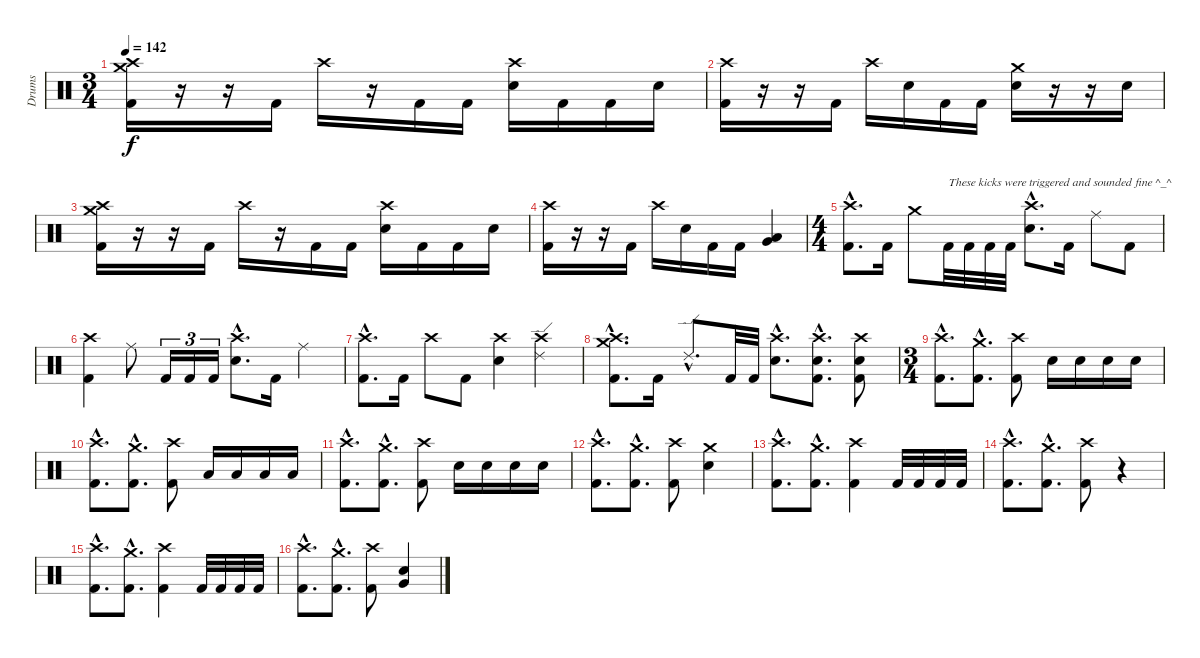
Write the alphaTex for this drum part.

\track ("Drums" "Drums") {instrument percussion}
\staff {score}
\articulation defaults
\ts (3 4)
\tempo 142
\clef neutral
\ks c
("Crash high (hit)" "Crash medium (hit)" "Kick (hit) 2").16{dy f} r.16 r.16 "Kick (hit) 2".16 "Crash high (hit)".16 r.16 "Kick (hit) 2".16 "Kick (hit) 2".16 ("Crash high (hit)" "Snare (hit) 2").16 "Kick (hit) 2".16 "Kick (hit) 2".16 "Snare (hit) 2".16 |
("Crash high (hit)" "Kick (hit) 2").16 r.16 r.16 "Kick (hit) 2".16 "Crash high (hit)".16 "Snare (hit) 2".16 "Kick (hit) 2".16 "Kick (hit) 2".16 ("Crash medium (hit)" "Snare (hit) 2").16 r.16 r.16 "Snare (hit) 2".16 |
("Crash high (hit)" "Crash medium (hit)" "Kick (hit) 2").16 r.16 r.16 "Kick (hit) 2".16 "Crash high (hit)".16 r.16 "Kick (hit) 2".16 "Kick (hit) 2".16 ("Crash high (hit)" "Snare (hit) 2").16 "Kick (hit) 2".16 "Kick (hit) 2".16 "Snare (hit) 2".16 |
("Crash high (hit)" "Kick (hit) 2").16 r.16 r.16 "Kick (hit) 2".16 "Crash high (hit)".16 "Snare (hit) 2".16 "Kick (hit) 2".16 "Kick (hit) 2".16 ("Very Low Tom (hit)" "Low Tom (hit)").4 |
\ts (4 4)
("Crash high (hit)"{hac} "Kick (hit) 2"{hac}).8{d} "Kick (hit) 2".16 "Crash medium (hit)".8 "Kick (hit) 2".32{txt "These kicks were triggered and sounded fine ^_^"} "Kick (hit) 2".32 "Kick (hit) 2".32 "Kick (hit) 2".32 ("Crash high (hit)"{hac} "Snare (hit) 2"{hac}).8{d} "Kick (hit) 2".16 "Ride (middle)".8 "Kick (hit) 2".8 |
("Crash high (hit)" "Kick (hit) 2").4 "Ride (middle)".8 "Kick (hit) 2".16{tu (3 2)} "Kick (hit) 2".16{tu (3 2)} "Kick (hit) 2".16{tu (3 2)} ("Crash high (hit)"{hac} "Snare (hit) 2"{hac}).8{d} "Kick (hit) 2".16 "Ride (middle)".4 |
("Crash high (hit)"{hac} "Kick (hit) 2"{hac}).8{d} "Kick (hit) 2".16 "Crash high (hit)".8 "Kick (hit) 2".8 ("Crash high (hit)" "Snare (hit) 2").4 ("Crash high (hit)" "Ride (edge) 2").4 |
("Crash high (hit)"{hac} "Crash medium (hit)"{hac} "Kick (hit) 2"{hac}).8{d} "Kick (hit) 2".16 "Ride (edge) 2"{hac}.8{d} "Kick (hit) 2".32 "Kick (hit) 2".32 ("Crash high (hit)"{hac} "Snare (hit) 2"{hac}).8{d} ("Crash high (hit)"{hac} "Snare (hit) 2"{hac} "Kick (hit) 2"{hac}).8{d} ("Crash high (hit)" "Snare (hit) 2" "Kick (hit) 2").8 |
\ts (3 4)
("Crash high (hit)"{hac} "Kick (hit) 2"{hac}).8{d} ("Crash medium (hit)"{hac} "Kick (hit) 2"{hac}).8{d} ("Crash high (hit)" "Kick (hit) 2").8 "Snare (hit) 2".16 "Snare (hit) 2".16 "Snare (hit) 2".16 "Snare (hit) 2".16 |
("Crash high (hit)"{hac} "Kick (hit) 2"{hac}).8{d} ("Crash medium (hit)"{hac} "Kick (hit) 2"{hac}).8{d} ("Crash high (hit)" "Kick (hit) 2").8 "Low Floor Tom (hit)".16 "Low Floor Tom (hit)".16 "Low Floor Tom (hit)".16 "Low Floor Tom (hit)".16 |
("Crash high (hit)"{hac} "Kick (hit) 2"{hac}).8{d} ("Crash medium (hit)"{hac} "Kick (hit) 2"{hac}).8{d} ("Crash high (hit)" "Kick (hit) 2").8 "Snare (hit) 2".16 "Snare (hit) 2".16 "Snare (hit) 2".16 "Snare (hit) 2".16 |
("Crash high (hit)"{hac} "Kick (hit) 2"{hac}).8{d} ("Crash medium (hit)"{hac} "Kick (hit) 2"{hac}).8{d} ("Crash high (hit)" "Kick (hit) 2").8 ("Crash medium (hit)" "Snare (hit) 2").4 |
("Crash high (hit)"{hac} "Kick (hit) 2"{hac}).8{d} ("Crash medium (hit)"{hac} "Kick (hit) 2"{hac}).8{d} ("Crash high (hit)" "Kick (hit) 2").4 "Kick (hit) 2".32 "Kick (hit) 2".32 "Kick (hit) 2".32 "Kick (hit) 2".32 |
("Crash high (hit)"{hac} "Kick (hit) 2"{hac}).8{d} ("Crash medium (hit)"{hac} "Kick (hit) 2"{hac}).8{d} ("Crash high (hit)" "Kick (hit) 2").8 r.4 |
("Crash high (hit)"{hac} "Kick (hit) 2"{hac}).8{d} ("Crash medium (hit)"{hac} "Kick (hit) 2"{hac}).8{d} ("Crash high (hit)" "Kick (hit) 2").4 "Kick (hit) 2".32 "Kick (hit) 2".32 "Kick (hit) 2".32 "Kick (hit) 2".32 |
("Crash high (hit)"{hac} "Kick (hit) 2"{hac}).8{d} ("Crash medium (hit)"{hac} "Kick (hit) 2"{hac}).8{d} ("Crash high (hit)" "Kick (hit) 2").8 ("Very Low Tom (hit)" "Snare (hit) 2").4
